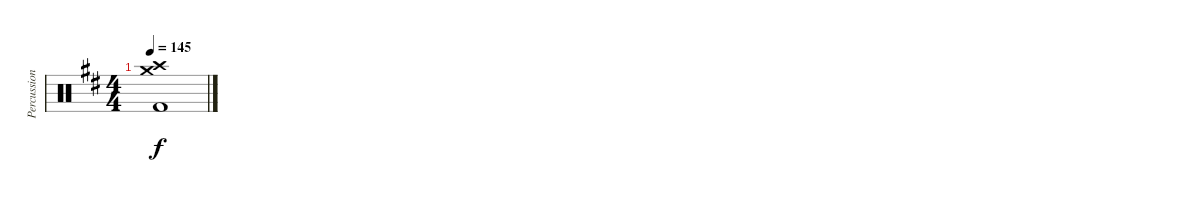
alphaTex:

\track ("Percussion" "Percussion") {instrument percussion}
\staff {score}
\articulation defaults
\ts (4 4)
\tempo 145
\clef neutral
\ks d
("Crash high (hit)" "Crash medium (hit)" "Kick (hit) 2").1{dy f}
